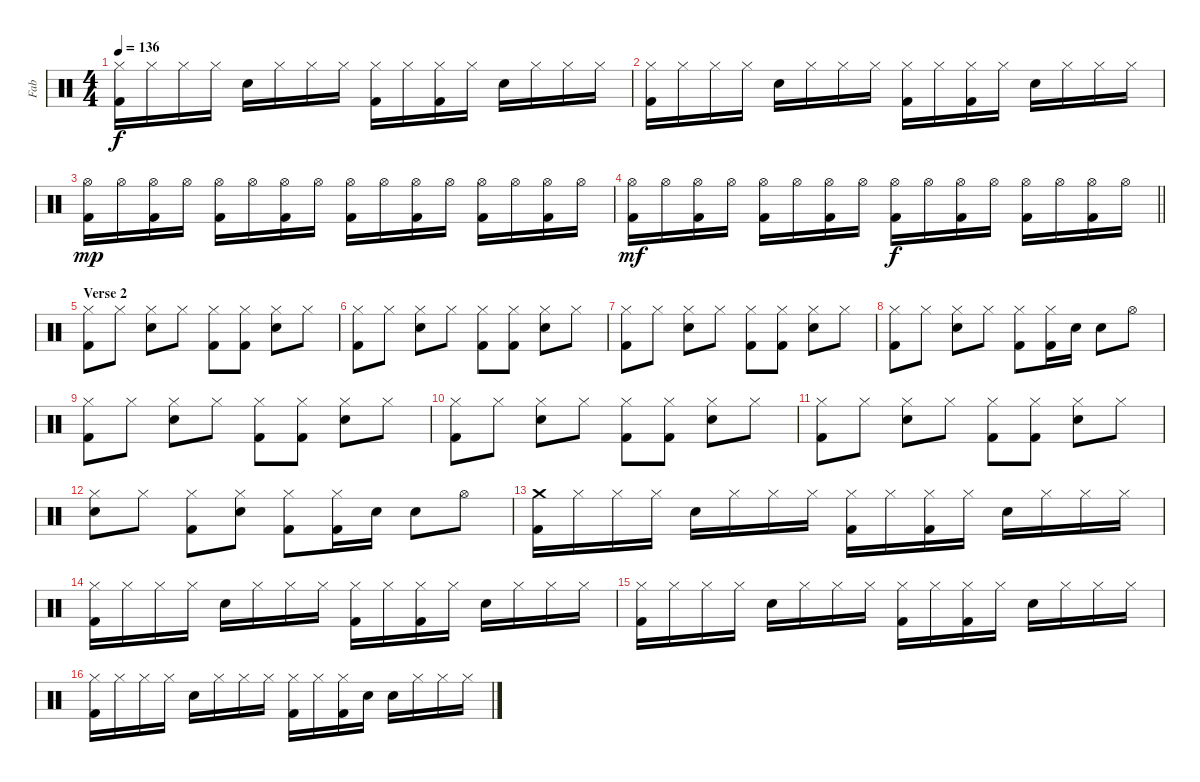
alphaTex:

\track ("Fab" "Fab") {instrument percussion}
\staff {score}
\articulation defaults
\ts (4 4)
\tempo 136
\clef neutral
\ks c
("Hi-Hat (closed)" "Kick (hit) 2").16{dy f} "Hi-Hat (closed)".16 "Hi-Hat (closed)".16 "Hi-Hat (closed)".16 "Snare (hit) 2".16 "Hi-Hat (closed)".16 "Hi-Hat (closed)".16 "Hi-Hat (closed)".16 ("Hi-Hat (closed)" "Kick (hit) 2").16 "Hi-Hat (closed)".16 ("Hi-Hat (closed)" "Kick (hit) 2").16 "Hi-Hat (closed)".16 "Snare (hit) 2".16 "Hi-Hat (closed)".16 "Hi-Hat (closed)".16 "Hi-Hat (closed)".16 |
("Hi-Hat (closed)" "Kick (hit) 2").16 "Hi-Hat (closed)".16 "Hi-Hat (closed)".16 "Hi-Hat (closed)".16 "Snare (hit) 2".16 "Hi-Hat (closed)".16 "Hi-Hat (closed)".16 "Hi-Hat (closed)".16 ("Hi-Hat (closed)" "Kick (hit) 2").16 "Hi-Hat (closed)".16 ("Hi-Hat (closed)" "Kick (hit) 2").16 "Hi-Hat (closed)".16 "Snare (hit) 2".16 "Hi-Hat (closed)".16 "Hi-Hat (closed)".16 "Hi-Hat (closed)".16 |
("Hi-Hat (open)" "Kick (hit) 2").16{dy mp} "Hi-Hat (open)".16 ("Hi-Hat (open)" "Kick (hit) 2").16 "Hi-Hat (open)".16 ("Hi-Hat (open)" "Kick (hit) 2").16 "Hi-Hat (open)".16 ("Hi-Hat (open)" "Kick (hit) 2").16 "Hi-Hat (open)".16 ("Hi-Hat (open)" "Kick (hit) 2").16 "Hi-Hat (open)".16 ("Hi-Hat (open)" "Kick (hit) 2").16 "Hi-Hat (open)".16 ("Hi-Hat (open)" "Kick (hit) 2").16 "Hi-Hat (open)".16 ("Hi-Hat (open)" "Kick (hit) 2").16 "Hi-Hat (open)".16 |
\barLineRight lightlight
("Hi-Hat (open)" "Kick (hit) 2").16{dy mf} "Hi-Hat (open)".16 ("Hi-Hat (open)" "Kick (hit) 2").16 "Hi-Hat (open)".16 ("Hi-Hat (open)" "Kick (hit) 2").16 "Hi-Hat (open)".16 ("Hi-Hat (open)" "Kick (hit) 2").16 "Hi-Hat (open)".16 ("Hi-Hat (open)" "Kick (hit) 2").16{dy f} "Hi-Hat (open)".16 ("Hi-Hat (open)" "Kick (hit) 2").16 "Hi-Hat (open)".16 ("Hi-Hat (open)" "Kick (hit) 2").16 "Hi-Hat (open)".16 ("Hi-Hat (open)" "Kick (hit) 2").16 "Hi-Hat (open)".16 |
\section ("" "Verse 2")
("Hi-Hat (closed)" "Kick (hit) 2").8 "Hi-Hat (closed)".8 ("Hi-Hat (closed)" "Snare (hit) 2").8 "Hi-Hat (closed)".8 ("Hi-Hat (closed)" "Kick (hit) 2").8 ("Hi-Hat (closed)" "Kick (hit) 2").8 ("Hi-Hat (closed)" "Snare (hit) 2").8 "Hi-Hat (closed)".8 |
("Hi-Hat (closed)" "Kick (hit) 2").8 "Hi-Hat (closed)".8 ("Hi-Hat (closed)" "Snare (hit) 2").8 "Hi-Hat (closed)".8 ("Hi-Hat (closed)" "Kick (hit) 2").8 ("Hi-Hat (closed)" "Kick (hit) 2").8 ("Hi-Hat (closed)" "Snare (hit) 2").8 "Hi-Hat (closed)".8 |
("Hi-Hat (closed)" "Kick (hit) 2").8 "Hi-Hat (closed)".8 ("Hi-Hat (closed)" "Snare (hit) 2").8 "Hi-Hat (closed)".8 ("Hi-Hat (closed)" "Kick (hit) 2").8 ("Hi-Hat (closed)" "Kick (hit) 2").8 ("Hi-Hat (closed)" "Snare (hit) 2").8 "Hi-Hat (closed)".8 |
("Hi-Hat (closed)" "Kick (hit) 2").8 "Hi-Hat (closed)".8 ("Hi-Hat (closed)" "Snare (hit) 2").8 "Hi-Hat (closed)".8 ("Hi-Hat (closed)" "Kick (hit) 2").8 ("Hi-Hat (closed)" "Kick (hit) 2").16 "Snare (hit) 2".16 "Snare (hit) 2".8 "Hi-Hat (open)".8 |
("Hi-Hat (closed)" "Kick (hit) 2").8 "Hi-Hat (closed)".8 ("Hi-Hat (closed)" "Snare (hit) 2").8 "Hi-Hat (closed)".8 ("Hi-Hat (closed)" "Kick (hit) 2").8 ("Hi-Hat (closed)" "Kick (hit) 2").8 ("Hi-Hat (closed)" "Snare (hit) 2").8 "Hi-Hat (closed)".8 |
("Hi-Hat (closed)" "Kick (hit) 2").8 "Hi-Hat (closed)".8 ("Hi-Hat (closed)" "Snare (hit) 2").8 "Hi-Hat (closed)".8 ("Hi-Hat (closed)" "Kick (hit) 2").8 ("Hi-Hat (closed)" "Kick (hit) 2").8 ("Hi-Hat (closed)" "Snare (hit) 2").8 "Hi-Hat (closed)".8 |
("Hi-Hat (closed)" "Kick (hit) 2").8 "Hi-Hat (closed)".8 ("Hi-Hat (closed)" "Snare (hit) 2").8 "Hi-Hat (closed)".8 ("Hi-Hat (closed)" "Kick (hit) 2").8 ("Hi-Hat (closed)" "Kick (hit) 2").8 ("Hi-Hat (closed)" "Snare (hit) 2").8 "Hi-Hat (closed)".8 |
("Hi-Hat (closed)" "Snare (hit) 2").8 "Hi-Hat (closed)".8 ("Hi-Hat (closed)" "Kick (hit) 2").8 ("Hi-Hat (closed)" "Snare (hit) 2").8 ("Hi-Hat (closed)" "Kick (hit) 2").8 ("Hi-Hat (closed)" "Kick (hit) 2").16 "Snare (hit) 2".16 "Snare (hit) 2".8 "Hi-Hat (open)".8 |
("Crash medium (hit)" "Kick (hit) 2").16 "Hi-Hat (closed)".16 "Hi-Hat (closed)".16 "Hi-Hat (closed)".16 "Snare (hit) 2".16 "Hi-Hat (closed)".16 "Hi-Hat (closed)".16 "Hi-Hat (closed)".16 ("Hi-Hat (closed)" "Kick (hit) 2").16 "Hi-Hat (closed)".16 ("Hi-Hat (closed)" "Kick (hit) 2").16 "Hi-Hat (closed)".16 "Snare (hit) 2".16 "Hi-Hat (closed)".16 "Hi-Hat (closed)".16 "Hi-Hat (closed)".16 |
("Hi-Hat (closed)" "Kick (hit) 2").16 "Hi-Hat (closed)".16 "Hi-Hat (closed)".16 "Hi-Hat (closed)".16 "Snare (hit) 2".16 "Hi-Hat (closed)".16 "Hi-Hat (closed)".16 "Hi-Hat (closed)".16 ("Hi-Hat (closed)" "Kick (hit) 2").16 "Hi-Hat (closed)".16 ("Hi-Hat (closed)" "Kick (hit) 2").16 "Hi-Hat (closed)".16 "Snare (hit) 2".16 "Hi-Hat (closed)".16 "Hi-Hat (closed)".16 "Hi-Hat (closed)".16 |
("Hi-Hat (closed)" "Kick (hit) 2").16 "Hi-Hat (closed)".16 "Hi-Hat (closed)".16 "Hi-Hat (closed)".16 "Snare (hit) 2".16 "Hi-Hat (closed)".16 "Hi-Hat (closed)".16 "Hi-Hat (closed)".16 ("Hi-Hat (closed)" "Kick (hit) 2").16 "Hi-Hat (closed)".16 ("Hi-Hat (closed)" "Kick (hit) 2").16 "Hi-Hat (closed)".16 "Snare (hit) 2".16 "Hi-Hat (closed)".16 "Hi-Hat (closed)".16 "Hi-Hat (closed)".16 |
("Hi-Hat (closed)" "Kick (hit) 2").16 "Hi-Hat (closed)".16 "Hi-Hat (closed)".16 "Hi-Hat (closed)".16 "Snare (hit) 2".16 "Hi-Hat (closed)".16 "Hi-Hat (closed)".16 "Hi-Hat (closed)".16 ("Hi-Hat (closed)" "Kick (hit) 2").16 "Hi-Hat (closed)".16 ("Hi-Hat (closed)" "Kick (hit) 2").16 "Snare (hit) 2".16 "Snare (hit) 2".16 "Hi-Hat (closed)".16 "Hi-Hat (closed)".16 "Hi-Hat (closed)".16
